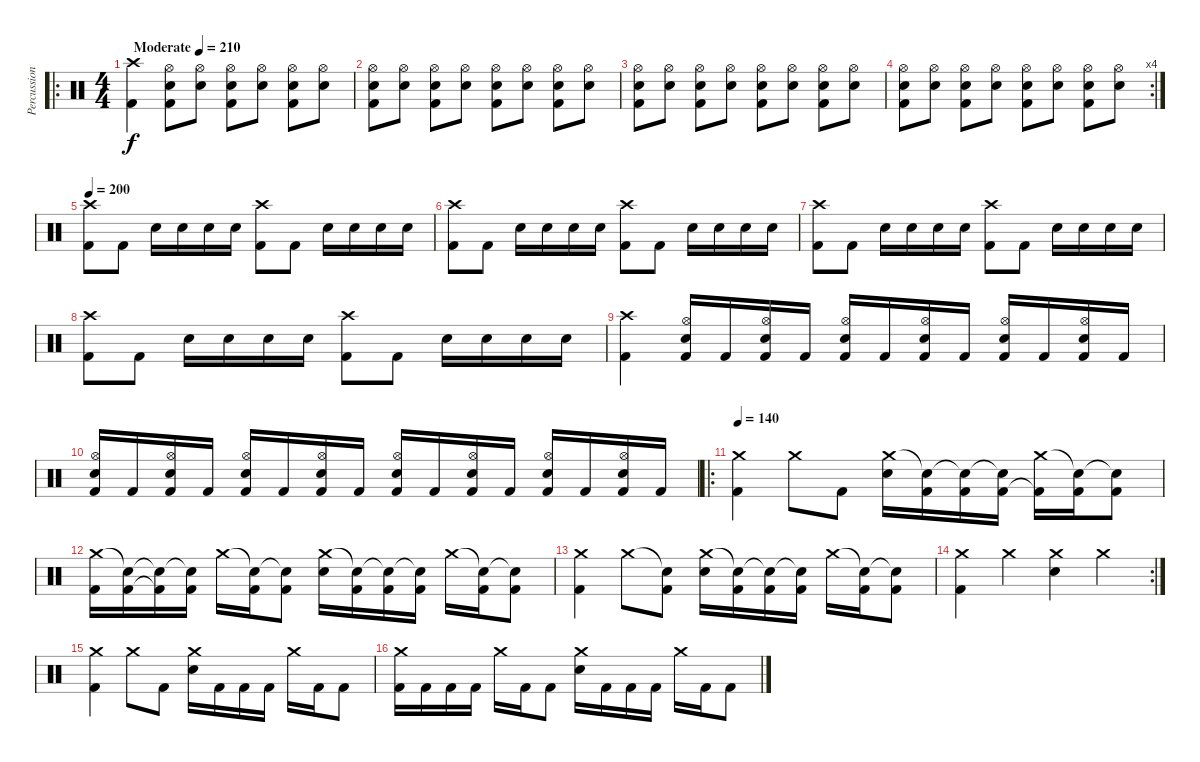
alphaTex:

\track ("Percussion" "Percussion") {instrument percussion}
\staff {score}
\articulation defaults
\ro
\ts (4 4)
\tempo (210 "Moderate")
\clef neutral
\ks c
("Crash high (hit)" "Kick (hit) 2").4{dy f} ("Hi-Hat (open)" "Snare (hit) 2" "Kick (hit) 2").8 ("Hi-Hat (open)" "Snare (hit) 2").8 ("Hi-Hat (open)" "Snare (hit) 2" "Kick (hit) 2").8 ("Hi-Hat (open)" "Snare (hit) 2").8 ("Hi-Hat (open)" "Snare (hit) 2" "Kick (hit) 2").8 ("Hi-Hat (open)" "Snare (hit) 2").8 |
("Hi-Hat (open)" "Snare (hit) 2" "Kick (hit) 2").8 ("Hi-Hat (open)" "Snare (hit) 2").8 ("Hi-Hat (open)" "Snare (hit) 2" "Kick (hit) 2").8 ("Hi-Hat (open)" "Snare (hit) 2").8 ("Hi-Hat (open)" "Snare (hit) 2" "Kick (hit) 2").8 ("Hi-Hat (open)" "Snare (hit) 2").8 ("Hi-Hat (open)" "Snare (hit) 2" "Kick (hit) 2").8 ("Hi-Hat (open)" "Snare (hit) 2").8 |
("Hi-Hat (open)" "Snare (hit) 2" "Kick (hit) 2").8 ("Hi-Hat (open)" "Snare (hit) 2").8 ("Hi-Hat (open)" "Snare (hit) 2" "Kick (hit) 2").8 ("Hi-Hat (open)" "Snare (hit) 2").8 ("Hi-Hat (open)" "Snare (hit) 2" "Kick (hit) 2").8 ("Hi-Hat (open)" "Snare (hit) 2").8 ("Hi-Hat (open)" "Snare (hit) 2" "Kick (hit) 2").8 ("Hi-Hat (open)" "Snare (hit) 2").8 |
\rc 4
("Hi-Hat (open)" "Snare (hit) 2" "Kick (hit) 2").8 ("Hi-Hat (open)" "Snare (hit) 2").8 ("Hi-Hat (open)" "Snare (hit) 2" "Kick (hit) 2").8 ("Hi-Hat (open)" "Snare (hit) 2").8 ("Hi-Hat (open)" "Snare (hit) 2" "Kick (hit) 2").8 ("Hi-Hat (open)" "Snare (hit) 2").8 ("Hi-Hat (open)" "Snare (hit) 2" "Kick (hit) 2").8 ("Hi-Hat (open)" "Snare (hit) 2").8 |
\tempo 200
("Crash high (hit)" "Kick (hit) 2").8 "Kick (hit) 2".8 "Snare (hit) 2".16 "Snare (hit) 2".16 "Snare (hit) 2".16 "Snare (hit) 2".16 ("Crash high (hit)" "Kick (hit) 2").8 "Kick (hit) 2".8 "Snare (hit) 2".16 "Snare (hit) 2".16 "Snare (hit) 2".16 "Snare (hit) 2".16 |
("Crash high (hit)" "Kick (hit) 2").8 "Kick (hit) 2".8 "Snare (hit) 2".16 "Snare (hit) 2".16 "Snare (hit) 2".16 "Snare (hit) 2".16 ("Crash high (hit)" "Kick (hit) 2").8 "Kick (hit) 2".8 "Snare (hit) 2".16 "Snare (hit) 2".16 "Snare (hit) 2".16 "Snare (hit) 2".16 |
("Crash high (hit)" "Kick (hit) 2").8 "Kick (hit) 2".8 "Snare (hit) 2".16 "Snare (hit) 2".16 "Snare (hit) 2".16 "Snare (hit) 2".16 ("Crash high (hit)" "Kick (hit) 2").8 "Kick (hit) 2".8 "Snare (hit) 2".16 "Snare (hit) 2".16 "Snare (hit) 2".16 "Snare (hit) 2".16 |
("Crash high (hit)" "Kick (hit) 2").8 "Kick (hit) 2".8 "Snare (hit) 2".16 "Snare (hit) 2".16 "Snare (hit) 2".16 "Snare (hit) 2".16 ("Crash high (hit)" "Kick (hit) 2").8 "Kick (hit) 2".8 "Snare (hit) 2".16 "Snare (hit) 2".16 "Snare (hit) 2".16 "Snare (hit) 2".16 |
("Crash high (hit)" "Kick (hit) 2").4 ("Hi-Hat (open)" "Snare (hit) 2" "Kick (hit) 2").16 "Kick (hit) 2".16 ("Hi-Hat (open)" "Snare (hit) 2" "Kick (hit) 2").16 "Kick (hit) 2".16 ("Hi-Hat (open)" "Snare (hit) 2" "Kick (hit) 2").16 "Kick (hit) 2".16 ("Hi-Hat (open)" "Snare (hit) 2" "Kick (hit) 2").16 "Kick (hit) 2".16 ("Hi-Hat (open)" "Snare (hit) 2" "Kick (hit) 2").16 "Kick (hit) 2".16 ("Hi-Hat (open)" "Snare (hit) 2" "Kick (hit) 2").16 "Kick (hit) 2".16 |
("Hi-Hat (open)" "Snare (hit) 2" "Kick (hit) 2").16 "Kick (hit) 2".16 ("Hi-Hat (open)" "Snare (hit) 2" "Kick (hit) 2").16 "Kick (hit) 2".16 ("Hi-Hat (open)" "Snare (hit) 2" "Kick (hit) 2").16 "Kick (hit) 2".16 ("Hi-Hat (open)" "Snare (hit) 2" "Kick (hit) 2").16 "Kick (hit) 2".16 ("Hi-Hat (open)" "Snare (hit) 2" "Kick (hit) 2").16 "Kick (hit) 2".16 ("Hi-Hat (open)" "Snare (hit) 2" "Kick (hit) 2").16 "Kick (hit) 2".16 ("Hi-Hat (open)" "Snare (hit) 2" "Kick (hit) 2").16 "Kick (hit) 2".16 ("Hi-Hat (open)" "Snare (hit) 2" "Kick (hit) 2").16 "Kick (hit) 2".16 |
\ro
\tempo 140
("Crash medium (hit)" "Kick (hit) 2").4 "Crash medium (hit)".8 "Kick (hit) 2".8 ("Crash medium (hit)" "Snare (hit) 2").16 ("Snare (hit)"{t} "Kick (hit) 2").16 ("Snare (hit)"{t} "Kick (hit) 2").16 ("Snare (hit)"{t} "Kick (hit) 2").16 ("Crash medium (hit)" "Kick (hit) 2"{t}).16 ("Snare (hit)"{t} "Kick (hit) 2").16 ("Snare (hit)"{t} "Kick (hit) 2").8 |
("Crash medium (hit)" "Kick (hit) 2").16 ("Snare (hit)"{t} "Kick (hit) 2").16 ("Snare (hit)"{t} "Kick (hit) 2"{t}).16 ("Snare (hit)"{t} "Kick (hit) 2").16 "Crash medium (hit)".16 ("Snare (hit)"{t} "Kick (hit) 2").16 ("Snare (hit)"{t} "Kick (hit) 2").8 ("Crash medium (hit)" "Snare (hit) 2").16 ("Snare (hit)"{t} "Kick (hit) 2").16 ("Snare (hit)"{t} "Kick (hit) 2").16 ("Snare (hit)"{t} "Kick (hit) 2").16 "Crash medium (hit)".16 ("Snare (hit)"{t} "Kick (hit) 2").16 ("Snare (hit)"{t} "Kick (hit) 2").8 |
("Crash medium (hit)" "Kick (hit) 2").4 "Crash medium (hit)".8 ("Snare (hit)"{t} "Kick (hit) 2").8 ("Crash medium (hit)" "Snare (hit) 2").16 ("Snare (hit)"{t} "Kick (hit) 2").16 ("Snare (hit)"{t} "Kick (hit) 2").16 ("Snare (hit)"{t} "Kick (hit) 2").16 "Crash medium (hit)".16 ("Snare (hit)"{t} "Kick (hit) 2").16 ("Snare (hit)"{t} "Kick (hit) 2").8 |
\rc 2
("Crash medium (hit)" "Kick (hit) 2").4 "Crash medium (hit)".4 ("Crash medium (hit)" "Snare (hit) 2").4 "Crash medium (hit)".4 |
("Crash medium (hit)" "Kick (hit) 2").4 "Crash medium (hit)".8 "Kick (hit) 2".8 ("Crash medium (hit)" "Snare (hit) 2").16 "Kick (hit) 2".16 "Kick (hit) 2".16 "Kick (hit) 2".16 "Crash medium (hit)".16 "Kick (hit) 2".16 "Kick (hit) 2".8 |
("Crash medium (hit)" "Kick (hit) 2").16 "Kick (hit) 2".16 "Kick (hit) 2".16 "Kick (hit) 2".16 "Crash medium (hit)".16 "Kick (hit) 2".16 "Kick (hit) 2".8 ("Crash medium (hit)" "Snare (hit) 2").16 "Kick (hit) 2".16 "Kick (hit) 2".16 "Kick (hit) 2".16 "Crash medium (hit)".16 "Kick (hit) 2".16 "Kick (hit) 2".8
